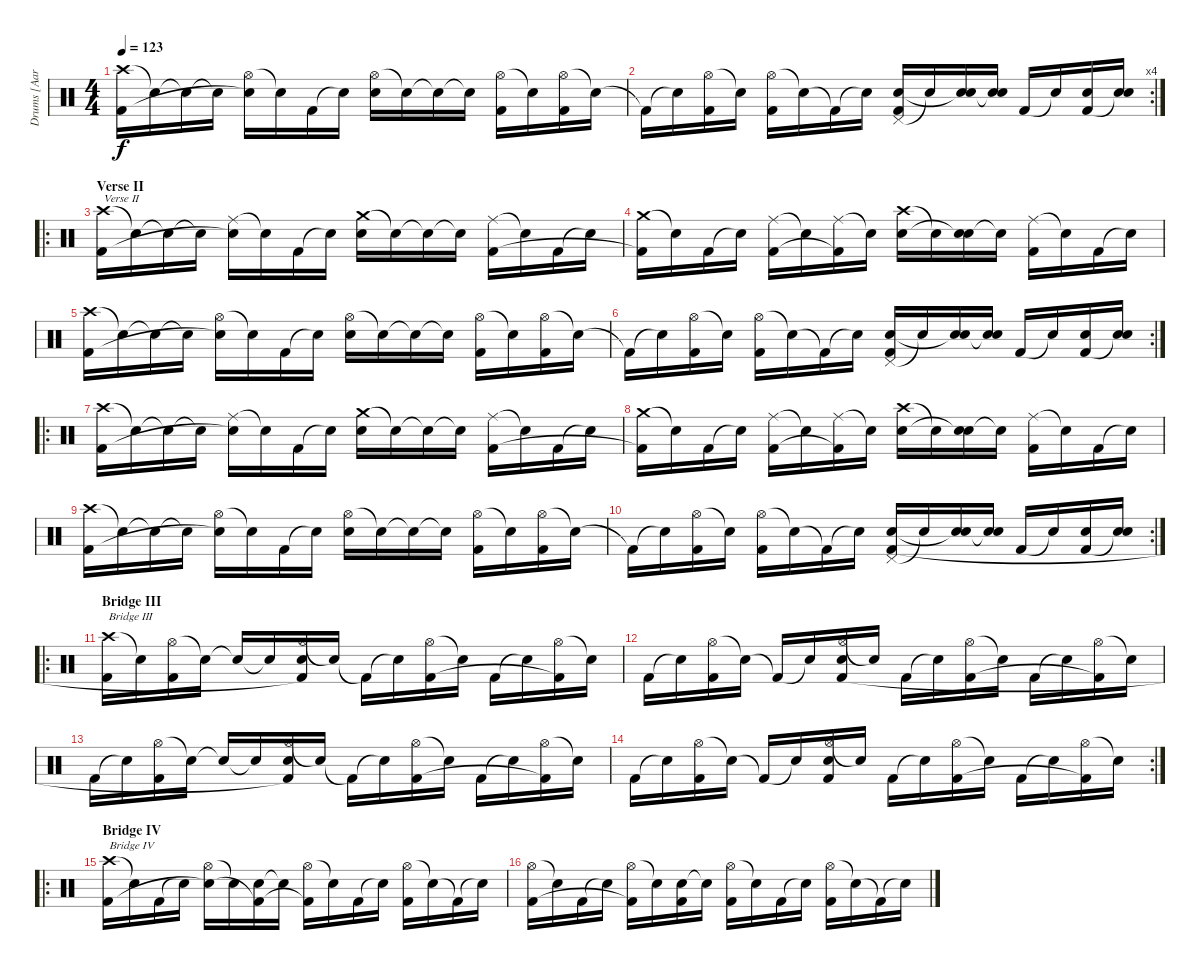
\track ("Drums [Aaron Harris]" "Drums [Aar") {instrument percussion}
\staff {score}
\articulation defaults
\ts (4 4)
\tempo 123
\clef neutral
\ks c
("Crash high (hit)" "Kick (hit) 2").16{dy f} "Snare (hit)"{t}.16 "Snare (hit)"{t}.16 "Snare (hit)"{t}.16 ("Hi-Hat (open)" "Snare (hit)"{t}).16 "Snare (hit)"{t}.16 "Kick (hit) 2".16 "Snare (hit)"{t}.16 ("Hi-Hat (open)" "Electric Snare (hit)").16 "Snare (hit)"{t}.16 "Snare (hit)"{t}.16 "Snare (hit)"{t}.16 ("Hi-Hat (open)" "Kick (hit) 2").16 "Snare (hit)"{t}.16 ("Hi-Hat (open)" "Kick (hit) 2").16 "Snare (hit)"{t}.16 |
\rc 4 "Kick (hit) 2"{t}.16 "Snare (hit)"{t}.16
("Hi-Hat (open)" "Kick (hit) 2").16 "Snare (hit)"{t}.16 ("Hi-Hat (open)" "Kick (hit) 2").16 "Snare (hit)"{t}.16 "Kick (hit) 2"{t}.16 "Snare (hit)"{t}.16 ("Pedal Hi-Hat (hit)" "Electric Snare (hit)" "Kick (hit) 2").16 "Snare (hit)"{t}.16 ("Electric Snare (hit)" "Snare (hit)"{t}).16 ("Electric Snare (hit)" "Snare (hit)"{t}).16 "Kick (hit) 2".16 "Snare (hit)"{t}.16 ("Electric Snare (hit)" "Kick (hit) 2").16 ("Electric Snare (hit)" "Snare (hit)"{t}).16 |
\ro
\section ("" "Verse II")
("Crash high (hit)" "Kick (hit) 2").16{txt "Verse II"} "Snare (hit)"{t}.16 "Snare (hit)"{t}.16 "Snare (hit)"{t}.16 ("Ride (middle)" "Snare (hit)"{t}).16 "Snare (hit)"{t}.16 "Kick (hit) 2".16 "Snare (hit)"{t}.16 ("Crash medium (hit)" "Electric Snare (hit)").16 "Snare (hit)"{t}.16 "Snare (hit)"{t}.16 "Snare (hit)"{t}.16 ("Ride (middle)" "Kick (hit) 2").16 "Snare (hit)"{t}.16 "Kick (hit) 2".16 "Snare (hit)"{t}.16 |
("Crash medium (hit)" "Kick (hit) 2"{t}).16 "Snare (hit)"{t}.16 "Kick (hit) 2".16 "Snare (hit)"{t}.16 ("Ride (middle)" "Kick (hit) 2").16 "Snare (hit)"{t}.16 ("Ride (middle)" "Kick (hit) 2"{t}).16 "Snare (hit)"{t}.16 ("Crash high (hit)" "Electric Snare (hit)").16 "Snare (hit)"{t}.16 ("Electric Snare (hit)" "Snare (hit)"{t}).16 "Snare (hit)"{t}.16 ("Ride (middle)" "Kick (hit) 2").16 "Snare (hit)"{t}.16 "Kick (hit) 2".16 "Snare (hit)"{t}.16 |
("Crash high (hit)" "Kick (hit) 2").16 "Snare (hit)"{t}.16 "Snare (hit)"{t}.16 "Snare (hit)"{t}.16 ("Hi-Hat (open)" "Snare (hit)"{t}).16 "Snare (hit)"{t}.16 "Kick (hit) 2".16 "Snare (hit)"{t}.16 ("Hi-Hat (open)" "Electric Snare (hit)").16 "Snare (hit)"{t}.16 "Snare (hit)"{t}.16 "Snare (hit)"{t}.16 ("Hi-Hat (open)" "Kick (hit) 2").16 "Snare (hit)"{t}.16 ("Hi-Hat (open)" "Kick (hit) 2").16 "Snare (hit)"{t}.16 |
\rc 2 "Kick (hit) 2"{t}.16 "Snare (hit)"{t}.16
("Hi-Hat (open)" "Kick (hit) 2").16 "Snare (hit)"{t}.16 ("Hi-Hat (open)" "Kick (hit) 2").16 "Snare (hit)"{t}.16 "Kick (hit) 2"{t}.16 "Snare (hit)"{t}.16 ("Pedal Hi-Hat (hit)" "Electric Snare (hit)" "Kick (hit) 2").16 "Snare (hit)"{t}.16 ("Electric Snare (hit)" "Snare (hit)"{t}).16 ("Electric Snare (hit)" "Snare (hit)"{t}).16 "Kick (hit) 2".16 "Snare (hit)"{t}.16 ("Electric Snare (hit)" "Kick (hit) 2").16 ("Electric Snare (hit)" "Snare (hit)"{t}).16 |
\ro
("Crash high (hit)" "Kick (hit) 2").16 "Snare (hit)"{t}.16 "Snare (hit)"{t}.16 "Snare (hit)"{t}.16 ("Ride (middle)" "Snare (hit)"{t}).16 "Snare (hit)"{t}.16 "Kick (hit) 2".16 "Snare (hit)"{t}.16 ("Crash medium (hit)" "Electric Snare (hit)").16 "Snare (hit)"{t}.16 "Snare (hit)"{t}.16 "Snare (hit)"{t}.16 ("Ride (middle)" "Kick (hit) 2").16 "Snare (hit)"{t}.16 "Kick (hit) 2".16 "Snare (hit)"{t}.16 |
("Crash medium (hit)" "Kick (hit) 2"{t}).16 "Snare (hit)"{t}.16 "Kick (hit) 2".16 "Snare (hit)"{t}.16 ("Ride (middle)" "Kick (hit) 2").16 "Snare (hit)"{t}.16 ("Ride (middle)" "Kick (hit) 2"{t}).16 "Snare (hit)"{t}.16 ("Crash high (hit)" "Electric Snare (hit)").16 "Snare (hit)"{t}.16 ("Electric Snare (hit)" "Snare (hit)"{t}).16 "Snare (hit)"{t}.16 ("Ride (middle)" "Kick (hit) 2").16 "Snare (hit)"{t}.16 "Kick (hit) 2".16 "Snare (hit)"{t}.16 |
("Crash high (hit)" "Kick (hit) 2").16 "Snare (hit)"{t}.16 "Snare (hit)"{t}.16 "Snare (hit)"{t}.16 ("Hi-Hat (open)" "Snare (hit)"{t}).16 "Snare (hit)"{t}.16 "Kick (hit) 2".16 "Snare (hit)"{t}.16 ("Hi-Hat (open)" "Electric Snare (hit)").16 "Snare (hit)"{t}.16 "Snare (hit)"{t}.16 "Snare (hit)"{t}.16 ("Hi-Hat (open)" "Kick (hit) 2").16 "Snare (hit)"{t}.16 ("Hi-Hat (open)" "Kick (hit) 2").16 "Snare (hit)"{t}.16 |
\rc 2 "Kick (hit) 2"{t}.16 "Snare (hit)"{t}.16
("Hi-Hat (open)" "Kick (hit) 2").16 "Snare (hit)"{t}.16 ("Hi-Hat (open)" "Kick (hit) 2").16 "Snare (hit)"{t}.16 "Kick (hit) 2"{t}.16 "Snare (hit)"{t}.16 ("Pedal Hi-Hat (hit)" "Electric Snare (hit)" "Kick (hit) 2").16 "Snare (hit)"{t}.16 ("Electric Snare (hit)" "Snare (hit)"{t}).16 ("Electric Snare (hit)" "Snare (hit)"{t}).16 "Kick (hit) 2".16 "Snare (hit)"{t}.16 ("Electric Snare (hit)" "Kick (hit) 2").16 ("Electric Snare (hit)" "Snare (hit)"{t}).16 |
\ro
\section ("" "Bridge III")
("Crash high (hit)" "Kick (hit) 2").16{txt "Bridge III"} "Snare (hit)"{t}.16 ("Hi-Hat (open)" "Kick (hit) 2").16 "Snare (hit)"{t}.16 "Snare (hit)"{t}.16 "Snare (hit)"{t}.16 ("Hi-Hat (open)" "Electric Snare (hit)" "Kick (hit) 2"{t}).16 "Snare (hit)"{t}.16 "Kick (hit) 2"{t}.16 "Snare (hit)"{t}.16 ("Hi-Hat (open)" "Kick (hit) 2").16 "Snare (hit)"{t}.16 "Kick (hit) 2".16 "Snare (hit)"{t}.16 ("Hi-Hat (open)" "Kick (hit) 2"{t}).16 "Snare (hit)"{t}.16 |
"Kick (hit) 2".16 "Snare (hit)"{t}.16 ("Hi-Hat (open)" "Kick (hit) 2").16 "Snare (hit)"{t}.16 "Kick (hit) 2"{t}.16 "Snare (hit)"{t}.16 ("Hi-Hat (open)" "Electric Snare (hit)" "Kick (hit) 2").16 "Snare (hit)"{t}.16 "Kick (hit) 2".16 "Snare (hit)"{t}.16 ("Hi-Hat (open)" "Kick (hit) 2").16 "Snare (hit)"{t}.16 "Kick (hit) 2".16 "Snare (hit)"{t}.16 ("Hi-Hat (open)" "Kick (hit) 2"{t}).16 "Snare (hit)"{t}.16 |
"Kick (hit) 2".16 "Snare (hit)"{t}.16 ("Hi-Hat (open)" "Kick (hit) 2").16 "Snare (hit)"{t}.16 "Snare (hit)"{t}.16 "Snare (hit)"{t}.16 ("Hi-Hat (open)" "Electric Snare (hit)" "Kick (hit) 2"{t}).16 "Snare (hit)"{t}.16 "Kick (hit) 2"{t}.16 "Snare (hit)"{t}.16 ("Hi-Hat (open)" "Kick (hit) 2").16 "Snare (hit)"{t}.16 "Kick (hit) 2".16 "Snare (hit)"{t}.16 ("Hi-Hat (open)" "Kick (hit) 2"{t}).16 "Snare (hit)"{t}.16 |
\rc 2 "Kick (hit) 2".16 "Snare (hit)"{t}.16
("Hi-Hat (open)" "Kick (hit) 2").16 "Snare (hit)"{t}.16 "Kick (hit) 2"{t}.16 "Snare (hit)"{t}.16 ("Hi-Hat (open)" "Electric Snare (hit)" "Kick (hit) 2").16 "Snare (hit)"{t}.16 "Kick (hit) 2".16 "Snare (hit)"{t}.16 ("Hi-Hat (open)" "Kick (hit) 2").16 "Snare (hit)"{t}.16 "Kick (hit) 2".16 "Snare (hit)"{t}.16 ("Hi-Hat (open)" "Kick (hit) 2"{t}).16 "Snare (hit)"{t}.16 |
\ro
\section ("" "Bridge IV")
("Crash high (hit)" "Kick (hit) 2").16{txt "Bridge IV"} "Snare (hit)"{t}.16 "Kick (hit) 2".16 "Snare (hit)"{t}.16 ("Hi-Hat (open)" "Snare (hit)"{t}).16 "Snare (hit)"{t}.16 ("Electric Snare (hit)" "Kick (hit) 2"{t}).16 "Snare (hit)"{t}.16 ("Hi-Hat (open)" "Kick (hit) 2"{t}).16 "Snare (hit)"{t}.16 "Kick (hit) 2".16 "Snare (hit)"{t}.16 ("Hi-Hat (open)" "Kick (hit) 2").16 "Snare (hit)"{t}.16 "Kick (hit) 2"{t}.16 "Snare (hit)"{t}.16 |
("Hi-Hat (open)" "Kick (hit) 2").16 "Snare (hit)"{t}.16 "Kick (hit) 2".16 "Snare (hit)"{t}.16 ("Hi-Hat (open)" "Kick (hit) 2"{t}).16 "Snare (hit)"{t}.16 ("Electric Snare (hit)" "Kick (hit) 2").16 "Snare (hit)"{t}.16 ("Hi-Hat (open)" "Kick (hit) 2").16 "Snare (hit)"{t}.16 "Kick (hit) 2".16 "Snare (hit)"{t}.16 ("Hi-Hat (open)" "Kick (hit) 2").16 "Snare (hit)"{t}.16 "Kick (hit) 2"{t}.16 "Snare (hit)"{t}.16
